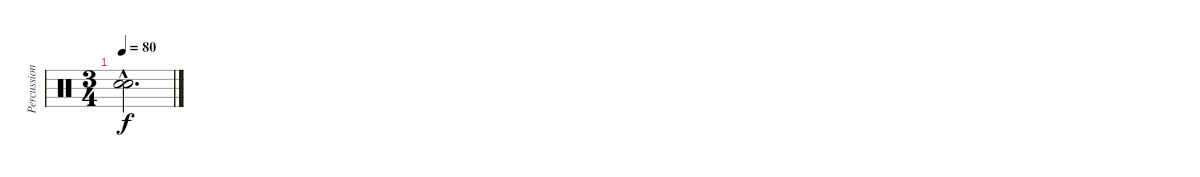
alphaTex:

\track ("Percussions" "Percussion") {instrument percussion}
\staff {score}
\articulation defaults
\ts (3 4)
\tempo 80
\clef neutral
\ks c
("Snare (hit)"{hac t} "Snare (hit)"{hac t}).2{d dy f}
